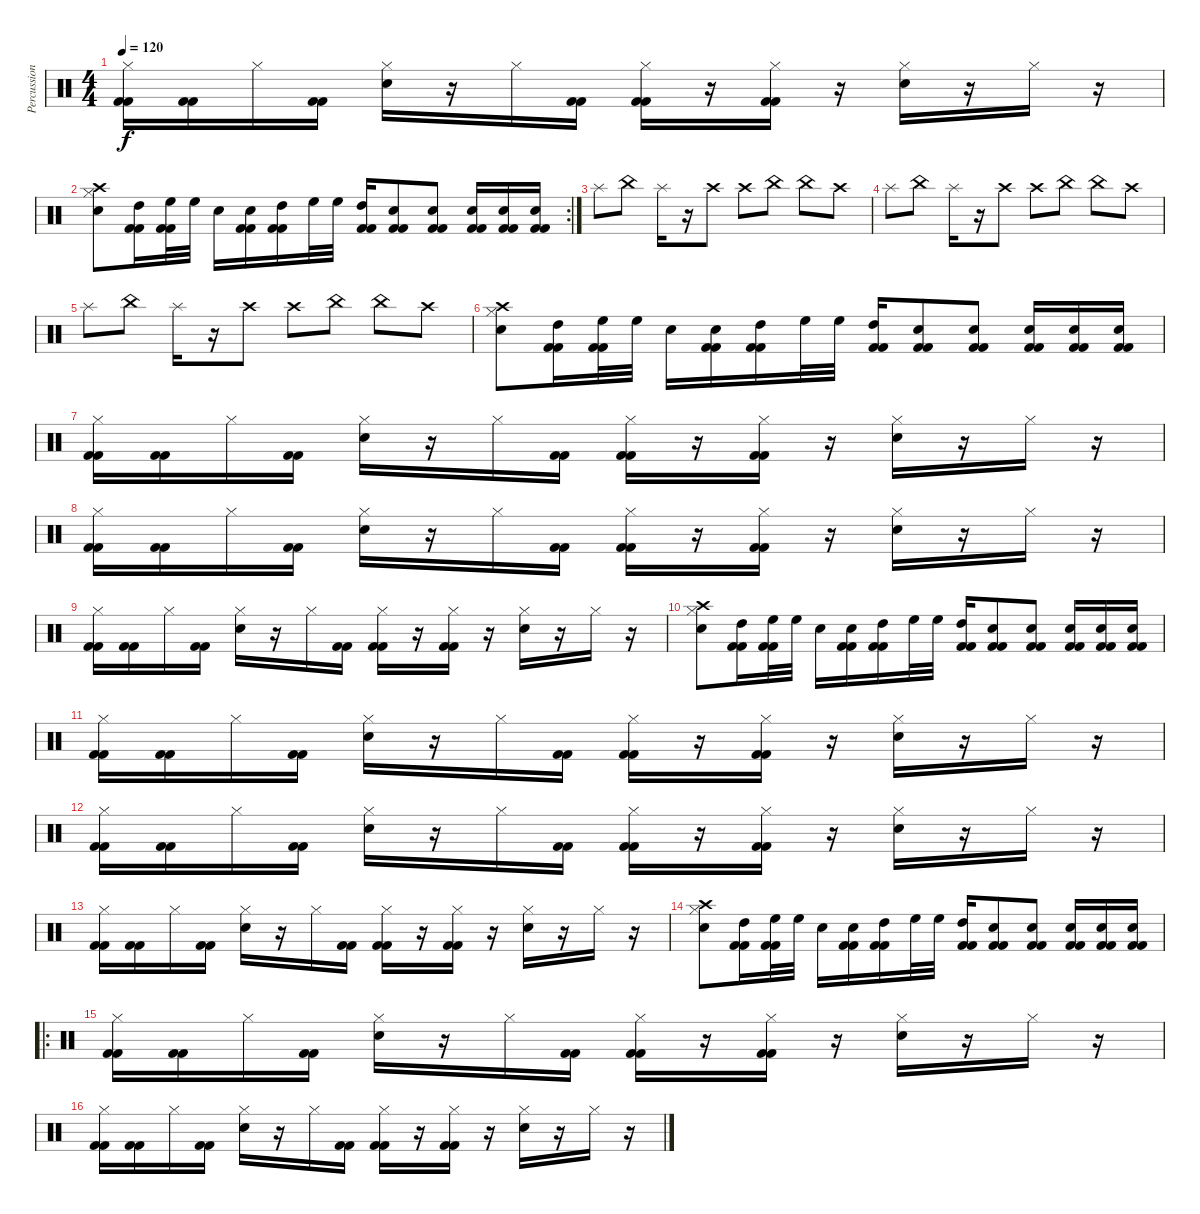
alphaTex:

\track ("Percussion" "Percussion") {instrument percussion}
\staff {score}
\articulation defaults
\ts (4 4)
\tempo 120
\clef neutral
\ks c
("Hi-Hat (closed)" "Kick (hit) 2" "Kick (hit) 2").16{dy f} ("Kick (hit) 2" "Kick (hit) 2").16 "Hi-Hat (closed)".16 ("Kick (hit) 2" "Kick (hit) 2").16 ("Hi-Hat (closed)" "Snare (hit) 2").16 r.16 "Hi-Hat (closed)".16 ("Kick (hit) 2" "Kick (hit) 2").16 ("Hi-Hat (closed)" "Kick (hit) 2" "Kick (hit) 2").16 r.16 ("Hi-Hat (closed)" "Kick (hit) 2" "Kick (hit) 2").16 r.16 ("Hi-Hat (closed)" "Snare (hit) 2").16 r.16 "Hi-Hat (closed)".16 r.16 |
\rc 2
("Hi-Hat (closed)" "Crash high (hit)" "Snare (hit) 2").8 ("High Tom (hit)" "Kick (hit) 2" "Kick (hit) 2").16 ("High Floor Tom (hit)" "Kick (hit) 2" "Kick (hit) 2").32 "High Floor Tom (hit)".32 "Snare (hit) 2".16 ("Snare (hit) 2" "Kick (hit) 2" "Kick (hit) 2").16 ("High Tom (hit)" "Kick (hit) 2" "Kick (hit) 2").16 "High Floor Tom (hit)".32 "High Floor Tom (hit)".32 ("High Tom (hit)" "Kick (hit) 2" "Kick (hit) 2").16 ("Snare (hit) 2" "Kick (hit) 2" "Kick (hit) 2").8 ("Snare (hit) 2" "Kick (hit) 2" "Kick (hit) 2").8 ("Snare (hit) 2" "Kick (hit) 2" "Kick (hit) 2").16 ("Snare (hit) 2" "Kick (hit) 2" "Kick (hit) 2").16 ("Snare (hit) 2" "Kick (hit) 2" "Kick (hit) 2").16 |
"Splash (hit)".8 "China (hit)".8 "Splash (hit)".16 r.16 "Crash high (hit)".8 "Crash high (hit)".8 "China (hit)".8 "China (hit)".8 "Crash high (hit)".8 |
"Splash (hit)".8 "China (hit)".8 "Splash (hit)".16 r.16 "Crash high (hit)".8 "Crash high (hit)".8 "China (hit)".8 "China (hit)".8 "Crash high (hit)".8 |
"Splash (hit)".8 "China (hit)".8 "Splash (hit)".16 r.16 "Crash high (hit)".8 "Crash high (hit)".8 "China (hit)".8 "China (hit)".8 "Crash high (hit)".8 |
("Hi-Hat (closed)" "Crash high (hit)" "Snare (hit) 2").8 ("High Tom (hit)" "Kick (hit) 2" "Kick (hit) 2").16 ("High Floor Tom (hit)" "Kick (hit) 2" "Kick (hit) 2").32 "High Floor Tom (hit)".32 "Snare (hit) 2".16 ("Snare (hit) 2" "Kick (hit) 2" "Kick (hit) 2").16 ("High Tom (hit)" "Kick (hit) 2" "Kick (hit) 2").16 "High Floor Tom (hit)".32 "High Floor Tom (hit)".32 ("High Tom (hit)" "Kick (hit) 2" "Kick (hit) 2").16 ("Snare (hit) 2" "Kick (hit) 2" "Kick (hit) 2").8 ("Snare (hit) 2" "Kick (hit) 2" "Kick (hit) 2").8 ("Snare (hit) 2" "Kick (hit) 2" "Kick (hit) 2").16 ("Snare (hit) 2" "Kick (hit) 2" "Kick (hit) 2").16 ("Snare (hit) 2" "Kick (hit) 2" "Kick (hit) 2").16 |
("Hi-Hat (closed)" "Kick (hit) 2" "Kick (hit) 2").16 ("Kick (hit) 2" "Kick (hit) 2").16 "Hi-Hat (closed)".16 ("Kick (hit) 2" "Kick (hit) 2").16 ("Hi-Hat (closed)" "Snare (hit) 2").16 r.16 "Hi-Hat (closed)".16 ("Kick (hit) 2" "Kick (hit) 2").16 ("Hi-Hat (closed)" "Kick (hit) 2" "Kick (hit) 2").16 r.16 ("Hi-Hat (closed)" "Kick (hit) 2" "Kick (hit) 2").16 r.16 ("Hi-Hat (closed)" "Snare (hit) 2").16 r.16 "Hi-Hat (closed)".16 r.16 |
("Hi-Hat (closed)" "Kick (hit) 2" "Kick (hit) 2").16 ("Kick (hit) 2" "Kick (hit) 2").16 "Hi-Hat (closed)".16 ("Kick (hit) 2" "Kick (hit) 2").16 ("Hi-Hat (closed)" "Snare (hit) 2").16 r.16 "Hi-Hat (closed)".16 ("Kick (hit) 2" "Kick (hit) 2").16 ("Hi-Hat (closed)" "Kick (hit) 2" "Kick (hit) 2").16 r.16 ("Hi-Hat (closed)" "Kick (hit) 2" "Kick (hit) 2").16 r.16 ("Hi-Hat (closed)" "Snare (hit) 2").16 r.16 "Hi-Hat (closed)".16 r.16 |
("Hi-Hat (closed)" "Kick (hit) 2" "Kick (hit) 2").16 ("Kick (hit) 2" "Kick (hit) 2").16 "Hi-Hat (closed)".16 ("Kick (hit) 2" "Kick (hit) 2").16 ("Hi-Hat (closed)" "Snare (hit) 2").16 r.16 "Hi-Hat (closed)".16 ("Kick (hit) 2" "Kick (hit) 2").16 ("Hi-Hat (closed)" "Kick (hit) 2" "Kick (hit) 2").16 r.16 ("Hi-Hat (closed)" "Kick (hit) 2" "Kick (hit) 2").16 r.16 ("Hi-Hat (closed)" "Snare (hit) 2").16 r.16 "Hi-Hat (closed)".16 r.16 |
("Hi-Hat (closed)" "Crash high (hit)" "Snare (hit) 2").8 ("High Tom (hit)" "Kick (hit) 2" "Kick (hit) 2").16 ("High Floor Tom (hit)" "Kick (hit) 2" "Kick (hit) 2").32 "High Floor Tom (hit)".32 "Snare (hit) 2".16 ("Snare (hit) 2" "Kick (hit) 2" "Kick (hit) 2").16 ("High Tom (hit)" "Kick (hit) 2" "Kick (hit) 2").16 "High Floor Tom (hit)".32 "High Floor Tom (hit)".32 ("High Tom (hit)" "Kick (hit) 2" "Kick (hit) 2").16 ("Snare (hit) 2" "Kick (hit) 2" "Kick (hit) 2").8 ("Snare (hit) 2" "Kick (hit) 2" "Kick (hit) 2").8 ("Snare (hit) 2" "Kick (hit) 2" "Kick (hit) 2").16 ("Snare (hit) 2" "Kick (hit) 2" "Kick (hit) 2").16 ("Snare (hit) 2" "Kick (hit) 2" "Kick (hit) 2").16 |
("Hi-Hat (closed)" "Kick (hit) 2" "Kick (hit) 2").16 ("Kick (hit) 2" "Kick (hit) 2").16 "Hi-Hat (closed)".16 ("Kick (hit) 2" "Kick (hit) 2").16 ("Hi-Hat (closed)" "Snare (hit) 2").16 r.16 "Hi-Hat (closed)".16 ("Kick (hit) 2" "Kick (hit) 2").16 ("Hi-Hat (closed)" "Kick (hit) 2" "Kick (hit) 2").16 r.16 ("Hi-Hat (closed)" "Kick (hit) 2" "Kick (hit) 2").16 r.16 ("Hi-Hat (closed)" "Snare (hit) 2").16 r.16 "Hi-Hat (closed)".16 r.16 |
("Hi-Hat (closed)" "Kick (hit) 2" "Kick (hit) 2").16 ("Kick (hit) 2" "Kick (hit) 2").16 "Hi-Hat (closed)".16 ("Kick (hit) 2" "Kick (hit) 2").16 ("Hi-Hat (closed)" "Snare (hit) 2").16 r.16 "Hi-Hat (closed)".16 ("Kick (hit) 2" "Kick (hit) 2").16 ("Hi-Hat (closed)" "Kick (hit) 2" "Kick (hit) 2").16 r.16 ("Hi-Hat (closed)" "Kick (hit) 2" "Kick (hit) 2").16 r.16 ("Hi-Hat (closed)" "Snare (hit) 2").16 r.16 "Hi-Hat (closed)".16 r.16 |
("Hi-Hat (closed)" "Kick (hit) 2" "Kick (hit) 2").16 ("Kick (hit) 2" "Kick (hit) 2").16 "Hi-Hat (closed)".16 ("Kick (hit) 2" "Kick (hit) 2").16 ("Hi-Hat (closed)" "Snare (hit) 2").16 r.16 "Hi-Hat (closed)".16 ("Kick (hit) 2" "Kick (hit) 2").16 ("Hi-Hat (closed)" "Kick (hit) 2" "Kick (hit) 2").16 r.16 ("Hi-Hat (closed)" "Kick (hit) 2" "Kick (hit) 2").16 r.16 ("Hi-Hat (closed)" "Snare (hit) 2").16 r.16 "Hi-Hat (closed)".16 r.16 |
("Hi-Hat (closed)" "Crash high (hit)" "Snare (hit) 2").8 ("High Tom (hit)" "Kick (hit) 2" "Kick (hit) 2").16 ("High Floor Tom (hit)" "Kick (hit) 2" "Kick (hit) 2").32 "High Floor Tom (hit)".32 "Snare (hit) 2".16 ("Snare (hit) 2" "Kick (hit) 2" "Kick (hit) 2").16 ("High Tom (hit)" "Kick (hit) 2" "Kick (hit) 2").16 "High Floor Tom (hit)".32 "High Floor Tom (hit)".32 ("High Tom (hit)" "Kick (hit) 2" "Kick (hit) 2").16 ("Snare (hit) 2" "Kick (hit) 2" "Kick (hit) 2").8 ("Snare (hit) 2" "Kick (hit) 2" "Kick (hit) 2").8 ("Snare (hit) 2" "Kick (hit) 2" "Kick (hit) 2").16 ("Snare (hit) 2" "Kick (hit) 2" "Kick (hit) 2").16 ("Snare (hit) 2" "Kick (hit) 2" "Kick (hit) 2").16 |
\ro
("Hi-Hat (closed)" "Kick (hit) 2" "Kick (hit) 2").16 ("Kick (hit) 2" "Kick (hit) 2").16 "Hi-Hat (closed)".16 ("Kick (hit) 2" "Kick (hit) 2").16 ("Hi-Hat (closed)" "Snare (hit) 2").16 r.16 "Hi-Hat (closed)".16 ("Kick (hit) 2" "Kick (hit) 2").16 ("Hi-Hat (closed)" "Kick (hit) 2" "Kick (hit) 2").16 r.16 ("Hi-Hat (closed)" "Kick (hit) 2" "Kick (hit) 2").16 r.16 ("Hi-Hat (closed)" "Snare (hit) 2").16 r.16 "Hi-Hat (closed)".16 r.16 |
("Hi-Hat (closed)" "Kick (hit) 2" "Kick (hit) 2").16 ("Kick (hit) 2" "Kick (hit) 2").16 "Hi-Hat (closed)".16 ("Kick (hit) 2" "Kick (hit) 2").16 ("Hi-Hat (closed)" "Snare (hit) 2").16 r.16 "Hi-Hat (closed)".16 ("Kick (hit) 2" "Kick (hit) 2").16 ("Hi-Hat (closed)" "Kick (hit) 2" "Kick (hit) 2").16 r.16 ("Hi-Hat (closed)" "Kick (hit) 2" "Kick (hit) 2").16 r.16 ("Hi-Hat (closed)" "Snare (hit) 2").16 r.16 "Hi-Hat (closed)".16 r.16
